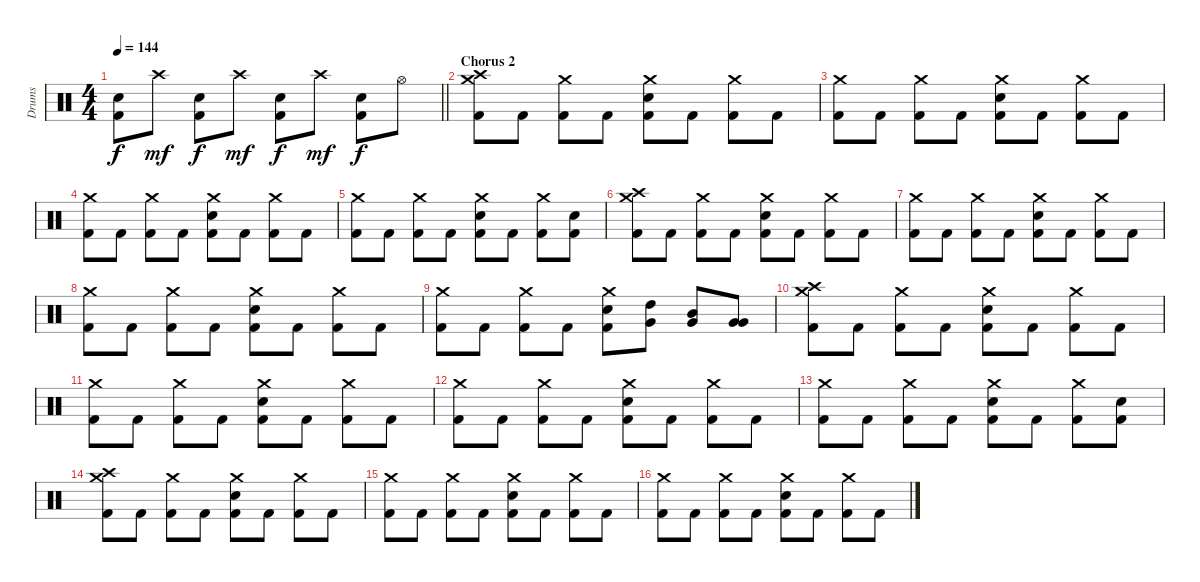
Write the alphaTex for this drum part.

\track ("Drums" "Drums") {instrument percussion}
\staff {score}
\articulation defaults
\ts (4 4)
\tempo 144
\clef neutral
\barLineRight lightlight
\ks c
("Electric Snare (hit)" "Kick (hit) 2").8{dy f} "Crash high (hit)".8{dy mf} ("Electric Snare (hit)" "Kick (hit) 2").8{dy f} "Crash high (hit)".8{dy mf} ("Electric Snare (hit)" "Kick (hit) 2").8{dy f} "Crash high (hit)".8{dy mf} ("Electric Snare (hit)" "Kick (hit) 2").8{dy f} "Hi-Hat (open)".8 |
\section ("" "Chorus 2")
("Crash high (hit)" "Crash medium (hit)" "Kick (hit) 2").8 "Kick (hit) 2".8 ("Crash medium (hit)" "Kick (hit) 2").8 "Kick (hit) 2".8 ("Crash medium (hit)" "Electric Snare (hit)" "Kick (hit) 2").8 "Kick (hit) 2".8 ("Crash medium (hit)" "Kick (hit) 2").8 "Kick (hit) 2".8 |
("Crash medium (hit)" "Kick (hit) 2").8 "Kick (hit) 2".8 ("Crash medium (hit)" "Kick (hit) 2").8 "Kick (hit) 2".8 ("Crash medium (hit)" "Electric Snare (hit)" "Kick (hit) 2").8 "Kick (hit) 2".8 ("Crash medium (hit)" "Kick (hit) 2").8 "Kick (hit) 2".8 |
("Crash medium (hit)" "Kick (hit) 2").8 "Kick (hit) 2".8 ("Crash medium (hit)" "Kick (hit) 2").8 "Kick (hit) 2".8 ("Crash medium (hit)" "Electric Snare (hit)" "Kick (hit) 2").8 "Kick (hit) 2".8 ("Crash medium (hit)" "Kick (hit) 2").8 "Kick (hit) 2".8 |
("Crash medium (hit)" "Kick (hit) 2").8 "Kick (hit) 2".8 ("Crash medium (hit)" "Kick (hit) 2").8 "Kick (hit) 2".8 ("Crash medium (hit)" "Electric Snare (hit)" "Kick (hit) 2").8 "Kick (hit) 2".8 ("Crash medium (hit)" "Kick (hit) 2").8 ("Electric Snare (hit)" "Kick (hit) 2").8 |
("Crash high (hit)" "Crash medium (hit)" "Kick (hit) 2").8 "Kick (hit) 2".8 ("Crash medium (hit)" "Kick (hit) 2").8 "Kick (hit) 2".8 ("Crash medium (hit)" "Electric Snare (hit)" "Kick (hit) 2").8 "Kick (hit) 2".8 ("Crash medium (hit)" "Kick (hit) 2").8 "Kick (hit) 2".8 |
("Crash medium (hit)" "Kick (hit) 2").8 "Kick (hit) 2".8 ("Crash medium (hit)" "Kick (hit) 2").8 "Kick (hit) 2".8 ("Crash medium (hit)" "Electric Snare (hit)" "Kick (hit) 2").8 "Kick (hit) 2".8 ("Crash medium (hit)" "Kick (hit) 2").8 "Kick (hit) 2".8 |
("Crash medium (hit)" "Kick (hit) 2").8 "Kick (hit) 2".8 ("Crash medium (hit)" "Kick (hit) 2").8 "Kick (hit) 2".8 ("Crash medium (hit)" "Electric Snare (hit)" "Kick (hit) 2").8 "Kick (hit) 2".8 ("Crash medium (hit)" "Kick (hit) 2").8 "Kick (hit) 2".8 |
("Crash medium (hit)" "Kick (hit) 2").8 "Kick (hit) 2".8 ("Crash medium (hit)" "Kick (hit) 2").8 "Kick (hit) 2".8 ("Crash medium (hit)" "Electric Snare (hit)" "Kick (hit) 2").8 ("High Tom (hit)" "Very Low Tom (hit)").8 ("Mid Tom (hit)" "Very Low Tom (hit)").8 ("Very Low Tom (hit)" "Very Low Tom (hit)").8 |
("Crash high (hit)" "Crash medium (hit)" "Kick (hit) 2").8 "Kick (hit) 2".8 ("Crash medium (hit)" "Kick (hit) 2").8 "Kick (hit) 2".8 ("Crash medium (hit)" "Electric Snare (hit)" "Kick (hit) 2").8 "Kick (hit) 2".8 ("Crash medium (hit)" "Kick (hit) 2").8 "Kick (hit) 2".8 |
("Crash medium (hit)" "Kick (hit) 2").8 "Kick (hit) 2".8 ("Crash medium (hit)" "Kick (hit) 2").8 "Kick (hit) 2".8 ("Crash medium (hit)" "Electric Snare (hit)" "Kick (hit) 2").8 "Kick (hit) 2".8 ("Crash medium (hit)" "Kick (hit) 2").8 "Kick (hit) 2".8 |
("Crash medium (hit)" "Kick (hit) 2").8 "Kick (hit) 2".8 ("Crash medium (hit)" "Kick (hit) 2").8 "Kick (hit) 2".8 ("Crash medium (hit)" "Electric Snare (hit)" "Kick (hit) 2").8 "Kick (hit) 2".8 ("Crash medium (hit)" "Kick (hit) 2").8 "Kick (hit) 2".8 |
("Crash medium (hit)" "Kick (hit) 2").8 "Kick (hit) 2".8 ("Crash medium (hit)" "Kick (hit) 2").8 "Kick (hit) 2".8 ("Crash medium (hit)" "Electric Snare (hit)" "Kick (hit) 2").8 "Kick (hit) 2".8 ("Crash medium (hit)" "Kick (hit) 2").8 ("Electric Snare (hit)" "Kick (hit) 2").8 |
("Crash high (hit)" "Crash medium (hit)" "Kick (hit) 2").8 "Kick (hit) 2".8 ("Crash medium (hit)" "Kick (hit) 2").8 "Kick (hit) 2".8 ("Crash medium (hit)" "Electric Snare (hit)" "Kick (hit) 2").8 "Kick (hit) 2".8 ("Crash medium (hit)" "Kick (hit) 2").8 "Kick (hit) 2".8 |
("Crash medium (hit)" "Kick (hit) 2").8 "Kick (hit) 2".8 ("Crash medium (hit)" "Kick (hit) 2").8 "Kick (hit) 2".8 ("Crash medium (hit)" "Electric Snare (hit)" "Kick (hit) 2").8 "Kick (hit) 2".8 ("Crash medium (hit)" "Kick (hit) 2").8 "Kick (hit) 2".8 |
("Crash medium (hit)" "Kick (hit) 2").8 "Kick (hit) 2".8 ("Crash medium (hit)" "Kick (hit) 2").8 "Kick (hit) 2".8 ("Crash medium (hit)" "Electric Snare (hit)" "Kick (hit) 2").8 "Kick (hit) 2".8 ("Crash medium (hit)" "Kick (hit) 2").8 "Kick (hit) 2".8
